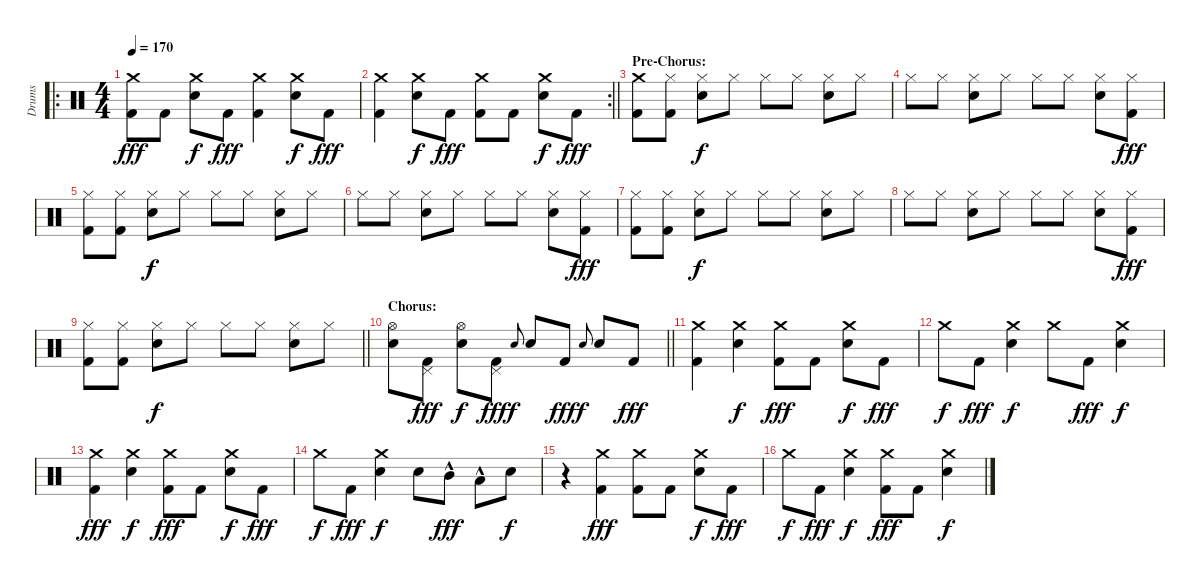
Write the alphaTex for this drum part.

\track ("Drums" "Drums") {instrument percussion}
\staff {score}
\articulation defaults
\ro
\ts (4 4)
\tempo 170
\clef neutral
\ks c
("Crash medium (hit)" "Kick (hit) 2").8{dy fff} "Kick (hit) 2".8 ("Crash medium (hit)" "Electric Snare (hit)").8{dy f} "Kick (hit) 2".8{dy fff} ("Crash medium (hit)" "Kick (hit) 2").4 ("Crash medium (hit)" "Electric Snare (hit)").8{dy f} "Kick (hit) 2".8{dy fff} |
\rc 2
\barLineRight lightlight
("Crash medium (hit)" "Kick (hit) 2").4 ("Crash medium (hit)" "Electric Snare (hit)").8{dy f} "Kick (hit) 2".8{dy fff} ("Crash medium (hit)" "Kick (hit) 2").8 "Kick (hit) 2".8 ("Crash medium (hit)" "Electric Snare (hit)").8{dy f} "Kick (hit) 2".8{dy fff} |
\section ("" "Pre-Chorus:")
("Crash medium (hit)" "Kick (hit) 2").8 ("Hi-Hat (closed)" "Kick (hit) 2").8 ("Hi-Hat (closed)" "Electric Snare (hit)").8{dy f} "Hi-Hat (closed)".8 "Hi-Hat (closed)".8 "Hi-Hat (closed)".8 ("Hi-Hat (closed)" "Electric Snare (hit)").8 "Hi-Hat (closed)".8 |
"Hi-Hat (closed)".8 "Hi-Hat (closed)".8 ("Hi-Hat (closed)" "Electric Snare (hit)").8 "Hi-Hat (closed)".8 "Hi-Hat (closed)".8 "Hi-Hat (closed)".8 ("Hi-Hat (closed)" "Electric Snare (hit)").8 ("Hi-Hat (closed)" "Kick (hit) 2").8{dy fff} |
("Hi-Hat (closed)" "Kick (hit) 2").8 ("Hi-Hat (closed)" "Kick (hit) 2").8 ("Hi-Hat (closed)" "Electric Snare (hit)").8{dy f} "Hi-Hat (closed)".8 "Hi-Hat (closed)".8 "Hi-Hat (closed)".8 ("Hi-Hat (closed)" "Electric Snare (hit)").8 "Hi-Hat (closed)".8 |
"Hi-Hat (closed)".8 "Hi-Hat (closed)".8 ("Hi-Hat (closed)" "Electric Snare (hit)").8 "Hi-Hat (closed)".8 "Hi-Hat (closed)".8 "Hi-Hat (closed)".8 ("Hi-Hat (closed)" "Electric Snare (hit)").8 ("Hi-Hat (closed)" "Kick (hit) 2").8{dy fff} |
("Hi-Hat (closed)" "Kick (hit) 2").8 ("Hi-Hat (closed)" "Kick (hit) 2").8 ("Hi-Hat (closed)" "Electric Snare (hit)").8{dy f} "Hi-Hat (closed)".8 "Hi-Hat (closed)".8 "Hi-Hat (closed)".8 ("Hi-Hat (closed)" "Electric Snare (hit)").8 "Hi-Hat (closed)".8 |
"Hi-Hat (closed)".8 "Hi-Hat (closed)".8 ("Hi-Hat (closed)" "Electric Snare (hit)").8 "Hi-Hat (closed)".8 "Hi-Hat (closed)".8 "Hi-Hat (closed)".8 ("Hi-Hat (closed)" "Electric Snare (hit)").8 ("Hi-Hat (closed)" "Kick (hit) 2").8{dy fff} |
\barLineRight lightlight
("Hi-Hat (closed)" "Kick (hit) 2").8 ("Hi-Hat (closed)" "Kick (hit) 2").8 ("Hi-Hat (closed)" "Electric Snare (hit)").8{dy f} "Hi-Hat (closed)".8 "Hi-Hat (closed)".8 "Hi-Hat (closed)".8 ("Hi-Hat (closed)" "Electric Snare (hit)").8 "Hi-Hat (closed)".8 |
\section ("" "Chorus:")
\barLineRight lightlight
("Hi-Hat (open)" "Electric Snare (hit)").8 ("Pedal Hi-Hat (hit)" "Kick (hit) 2").8{dy fff} ("Hi-Hat (open)" "Electric Snare (hit)").8{dy f} ("Pedal Hi-Hat (hit)" "Kick (hit) 2").8{dy fff} "Electric Snare (hit)".8{gr onbeat dy f} "Electric Snare (hit)".8 "Kick (hit) 2".8{dy fff} "Electric Snare (hit)".8{gr onbeat dy f} "Electric Snare (hit)".8 "Kick (hit) 2".8{dy fff} |
("Crash medium (hit)" "Kick (hit) 2").4 ("Crash medium (hit)" "Electric Snare (hit)").4{dy f} ("Crash medium (hit)" "Kick (hit) 2").8{dy fff} "Kick (hit) 2".8 ("Crash medium (hit)" "Electric Snare (hit)").8{dy f} "Kick (hit) 2".8{dy fff} |
"Crash medium (hit)".8{dy f} "Kick (hit) 2".8{dy fff} ("Crash medium (hit)" "Electric Snare (hit)").4{dy f} "Crash medium (hit)".8 "Kick (hit) 2".8{dy fff} ("Crash medium (hit)" "Electric Snare (hit)").4{dy f} |
("Crash medium (hit)" "Kick (hit) 2").4{dy fff} ("Crash medium (hit)" "Electric Snare (hit)").4{dy f} ("Crash medium (hit)" "Kick (hit) 2").8{dy fff} "Kick (hit) 2".8 ("Crash medium (hit)" "Electric Snare (hit)").8{dy f} "Kick (hit) 2".8{dy fff} |
"Crash medium (hit)".8{dy f} "Kick (hit) 2".8{dy fff} ("Crash medium (hit)" "Electric Snare (hit)").4{dy f} "Electric Snare (hit)".8 "Mid Tom (hit)"{hac}.8{dy fff} "Low Tom (hit)"{hac}.8 "Electric Snare (hit)".8{dy f} |
r.4 ("Crash medium (hit)" "Kick (hit) 2").4{dy fff} ("Crash medium (hit)" "Kick (hit) 2").8 "Kick (hit) 2".8 ("Crash medium (hit)" "Electric Snare (hit)").8{dy f} "Kick (hit) 2".8{dy fff} |
"Crash medium (hit)".8{dy f} "Kick (hit) 2".8{dy fff} ("Crash medium (hit)" "Electric Snare (hit)").4{dy f} ("Crash medium (hit)" "Kick (hit) 2").8{dy fff} "Kick (hit) 2".8 ("Crash medium (hit)" "Electric Snare (hit)").4{dy f}
